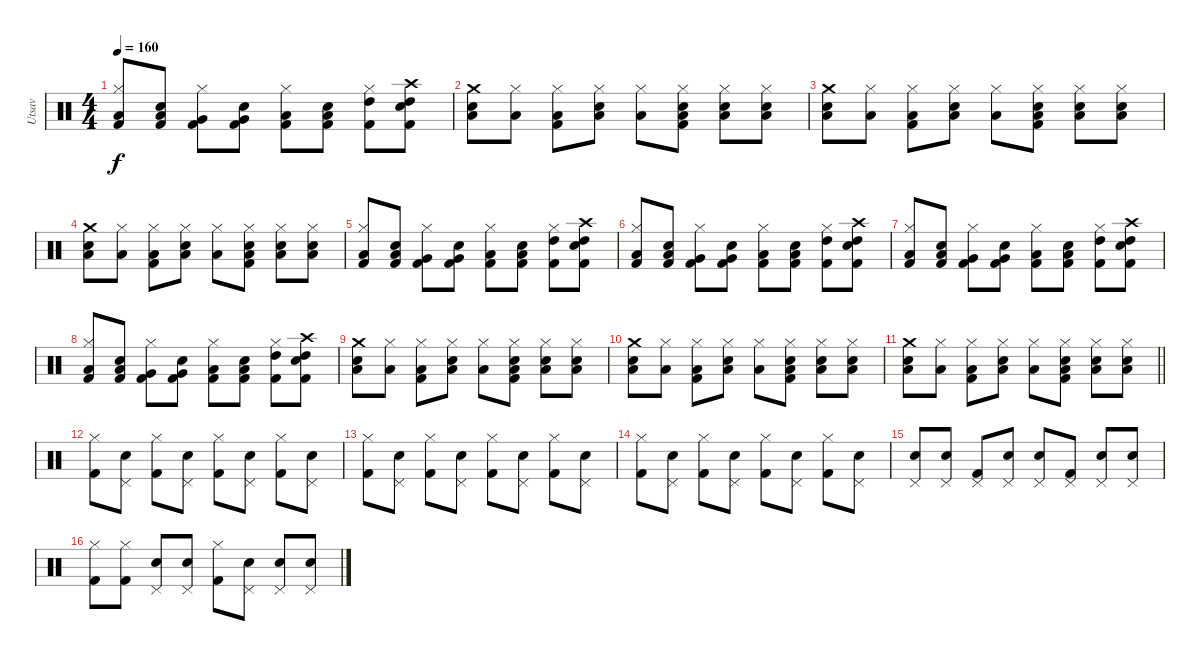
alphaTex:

\track ("Utsav" "Utsav") {instrument percussion}
\staff {score}
\articulation defaults
\ts (4 4)
\tempo 160
\clef neutral
\ks c
("Low Tom (hit)" "Hi-Hat (closed)" "Kick (hit) 2").8{dy f} ("Low Tom (hit)" "Snare (hit) 2" "Kick (hit) 2").8 ("Very Low Tom (hit)" "Hi-Hat (closed)" "Kick (hit) 2").8 ("Very Low Tom (hit)" "Snare (hit) 2" "Kick (hit) 2").8 ("Low Floor Tom (hit)" "Hi-Hat (closed)" "Kick (hit) 2").8 ("Low Floor Tom (hit)" "Snare (hit) 2" "Kick (hit) 2").8 ("High Tom (hit)" "Hi-Hat (closed)" "Kick (hit) 2").8 ("High Tom (hit)" "Crash high (hit)" "Snare (hit) 2" "Kick (hit) 2").8 |
("Crash medium (hit)" "Low Floor Tom (hit)" "Snare (hit) 2").8 ("Low Floor Tom (hit)" "Hi-Hat (closed)").8 ("Low Floor Tom (hit)" "Hi-Hat (closed)" "Kick (hit) 2").8 ("Low Floor Tom (hit)" "Hi-Hat (closed)" "Snare (hit) 2").8 ("Low Floor Tom (hit)" "Hi-Hat (closed)").8 ("Low Floor Tom (hit)" "Hi-Hat (closed)" "Snare (hit) 2" "Kick (hit) 2").8 ("Low Floor Tom (hit)" "Hi-Hat (closed)" "Snare (hit) 2").8 ("Low Floor Tom (hit)" "Hi-Hat (closed)" "Snare (hit) 2").8 |
("Crash medium (hit)" "Low Floor Tom (hit)" "Snare (hit) 2").8 ("Low Floor Tom (hit)" "Hi-Hat (closed)").8 ("Low Floor Tom (hit)" "Hi-Hat (closed)" "Kick (hit) 2").8 ("Low Floor Tom (hit)" "Hi-Hat (closed)" "Snare (hit) 2").8 ("Low Floor Tom (hit)" "Hi-Hat (closed)").8 ("Low Floor Tom (hit)" "Hi-Hat (closed)" "Snare (hit) 2" "Kick (hit) 2").8 ("Low Floor Tom (hit)" "Hi-Hat (closed)" "Snare (hit) 2").8 ("Low Floor Tom (hit)" "Hi-Hat (closed)" "Snare (hit) 2").8 |
("Crash medium (hit)" "Low Floor Tom (hit)" "Snare (hit) 2").8 ("Low Floor Tom (hit)" "Hi-Hat (closed)").8 ("Low Floor Tom (hit)" "Hi-Hat (closed)" "Kick (hit) 2").8 ("Low Floor Tom (hit)" "Hi-Hat (closed)" "Snare (hit) 2").8 ("Low Floor Tom (hit)" "Hi-Hat (closed)").8 ("Low Floor Tom (hit)" "Hi-Hat (closed)" "Snare (hit) 2" "Kick (hit) 2").8 ("Low Floor Tom (hit)" "Hi-Hat (closed)" "Snare (hit) 2").8 ("Low Floor Tom (hit)" "Hi-Hat (closed)" "Snare (hit) 2").8 |
("Low Tom (hit)" "Hi-Hat (closed)" "Kick (hit) 2").8 ("Low Tom (hit)" "Snare (hit) 2" "Kick (hit) 2").8 ("Very Low Tom (hit)" "Hi-Hat (closed)" "Kick (hit) 2").8 ("Very Low Tom (hit)" "Snare (hit) 2" "Kick (hit) 2").8 ("Low Floor Tom (hit)" "Hi-Hat (closed)" "Kick (hit) 2").8 ("Low Floor Tom (hit)" "Snare (hit) 2" "Kick (hit) 2").8 ("High Tom (hit)" "Hi-Hat (closed)" "Kick (hit) 2").8 ("High Tom (hit)" "Crash high (hit)" "Snare (hit) 2" "Kick (hit) 2").8 |
("Low Tom (hit)" "Hi-Hat (closed)" "Kick (hit) 2").8 ("Low Tom (hit)" "Snare (hit) 2" "Kick (hit) 2").8 ("Very Low Tom (hit)" "Hi-Hat (closed)" "Kick (hit) 2").8 ("Very Low Tom (hit)" "Snare (hit) 2" "Kick (hit) 2").8 ("Low Floor Tom (hit)" "Hi-Hat (closed)" "Kick (hit) 2").8 ("Low Floor Tom (hit)" "Snare (hit) 2" "Kick (hit) 2").8 ("High Tom (hit)" "Hi-Hat (closed)" "Kick (hit) 2").8 ("High Tom (hit)" "Crash high (hit)" "Snare (hit) 2" "Kick (hit) 2").8 |
("Low Tom (hit)" "Hi-Hat (closed)" "Kick (hit) 2").8 ("Low Tom (hit)" "Snare (hit) 2" "Kick (hit) 2").8 ("Very Low Tom (hit)" "Hi-Hat (closed)" "Kick (hit) 2").8 ("Very Low Tom (hit)" "Snare (hit) 2" "Kick (hit) 2").8 ("Low Floor Tom (hit)" "Hi-Hat (closed)" "Kick (hit) 2").8 ("Low Floor Tom (hit)" "Snare (hit) 2" "Kick (hit) 2").8 ("High Tom (hit)" "Hi-Hat (closed)" "Kick (hit) 2").8 ("High Tom (hit)" "Crash high (hit)" "Snare (hit) 2" "Kick (hit) 2").8 |
("Low Tom (hit)" "Hi-Hat (closed)" "Kick (hit) 2").8 ("Low Tom (hit)" "Snare (hit) 2" "Kick (hit) 2").8 ("Very Low Tom (hit)" "Hi-Hat (closed)" "Kick (hit) 2").8 ("Very Low Tom (hit)" "Snare (hit) 2" "Kick (hit) 2").8 ("Low Floor Tom (hit)" "Hi-Hat (closed)" "Kick (hit) 2").8 ("Low Floor Tom (hit)" "Snare (hit) 2" "Kick (hit) 2").8 ("High Tom (hit)" "Hi-Hat (closed)" "Kick (hit) 2").8 ("High Tom (hit)" "Crash high (hit)" "Snare (hit) 2" "Kick (hit) 2").8 |
("Crash medium (hit)" "Low Floor Tom (hit)" "Snare (hit) 2").8 ("Low Floor Tom (hit)" "Hi-Hat (closed)").8 ("Low Floor Tom (hit)" "Hi-Hat (closed)" "Kick (hit) 2").8 ("Low Floor Tom (hit)" "Hi-Hat (closed)" "Snare (hit) 2").8 ("Low Floor Tom (hit)" "Hi-Hat (closed)").8 ("Low Floor Tom (hit)" "Hi-Hat (closed)" "Snare (hit) 2" "Kick (hit) 2").8 ("Low Floor Tom (hit)" "Hi-Hat (closed)" "Snare (hit) 2").8 ("Low Floor Tom (hit)" "Hi-Hat (closed)" "Snare (hit) 2").8 |
("Crash medium (hit)" "Low Floor Tom (hit)" "Snare (hit) 2").8 ("Low Floor Tom (hit)" "Hi-Hat (closed)").8 ("Low Floor Tom (hit)" "Hi-Hat (closed)" "Kick (hit) 2").8 ("Low Floor Tom (hit)" "Hi-Hat (closed)" "Snare (hit) 2").8 ("Low Floor Tom (hit)" "Hi-Hat (closed)").8 ("Low Floor Tom (hit)" "Hi-Hat (closed)" "Snare (hit) 2" "Kick (hit) 2").8 ("Low Floor Tom (hit)" "Hi-Hat (closed)" "Snare (hit) 2").8 ("Low Floor Tom (hit)" "Hi-Hat (closed)" "Snare (hit) 2").8 |
\barLineRight lightlight
("Crash medium (hit)" "Low Floor Tom (hit)" "Snare (hit) 2").8 ("Low Floor Tom (hit)" "Hi-Hat (closed)").8 ("Low Floor Tom (hit)" "Hi-Hat (closed)" "Kick (hit) 2").8 ("Low Floor Tom (hit)" "Hi-Hat (closed)" "Snare (hit) 2").8 ("Low Floor Tom (hit)" "Hi-Hat (closed)").8 ("Low Floor Tom (hit)" "Hi-Hat (closed)" "Snare (hit) 2" "Kick (hit) 2").8 ("Low Floor Tom (hit)" "Hi-Hat (closed)" "Snare (hit) 2").8 ("Low Floor Tom (hit)" "Hi-Hat (closed)" "Snare (hit) 2").8 |
("Hi-Hat (closed)" "Kick (hit) 2").8 ("Pedal Hi-Hat (hit)" "Snare (hit) 2").8 ("Hi-Hat (closed)" "Kick (hit) 2").8 ("Pedal Hi-Hat (hit)" "Snare (hit) 2").8 ("Hi-Hat (closed)" "Kick (hit) 2").8 ("Pedal Hi-Hat (hit)" "Snare (hit) 2").8 ("Hi-Hat (closed)" "Kick (hit) 2").8 ("Pedal Hi-Hat (hit)" "Snare (hit) 2").8 |
("Hi-Hat (closed)" "Kick (hit) 2").8 ("Pedal Hi-Hat (hit)" "Snare (hit) 2").8 ("Hi-Hat (closed)" "Kick (hit) 2").8 ("Pedal Hi-Hat (hit)" "Snare (hit) 2").8 ("Hi-Hat (closed)" "Kick (hit) 2").8 ("Pedal Hi-Hat (hit)" "Snare (hit) 2").8 ("Hi-Hat (closed)" "Kick (hit) 2").8 ("Pedal Hi-Hat (hit)" "Snare (hit) 2").8 |
("Hi-Hat (closed)" "Kick (hit) 2").8 ("Pedal Hi-Hat (hit)" "Snare (hit) 2").8 ("Hi-Hat (closed)" "Kick (hit) 2").8 ("Pedal Hi-Hat (hit)" "Snare (hit) 2").8 ("Hi-Hat (closed)" "Kick (hit) 2").8 ("Pedal Hi-Hat (hit)" "Snare (hit) 2").8 ("Hi-Hat (closed)" "Kick (hit) 2").8 ("Pedal Hi-Hat (hit)" "Snare (hit) 2").8 |
("Snare (hit) 2" "Pedal Hi-Hat (hit)").8 ("Snare (hit) 2" "Pedal Hi-Hat (hit)").8 ("Pedal Hi-Hat (hit)" "Kick (hit) 2").8 ("Snare (hit) 2" "Pedal Hi-Hat (hit)").8 ("Snare (hit) 2" "Pedal Hi-Hat (hit)").8 ("Pedal Hi-Hat (hit)" "Kick (hit) 2").8 ("Snare (hit) 2" "Pedal Hi-Hat (hit)").8 ("Snare (hit) 2" "Pedal Hi-Hat (hit)").8 |
("Kick (hit) 2" "Hi-Hat (closed)").8 ("Kick (hit) 2" "Hi-Hat (closed)").8 ("Pedal Hi-Hat (hit)" "Snare (hit) 2").8 ("Pedal Hi-Hat (hit)" "Snare (hit) 2").8 ("Kick (hit) 2" "Hi-Hat (closed)").8 ("Pedal Hi-Hat (hit)" "Snare (hit) 2").8 ("Pedal Hi-Hat (hit)" "Snare (hit) 2").8 ("Pedal Hi-Hat (hit)" "Snare (hit) 2").8
